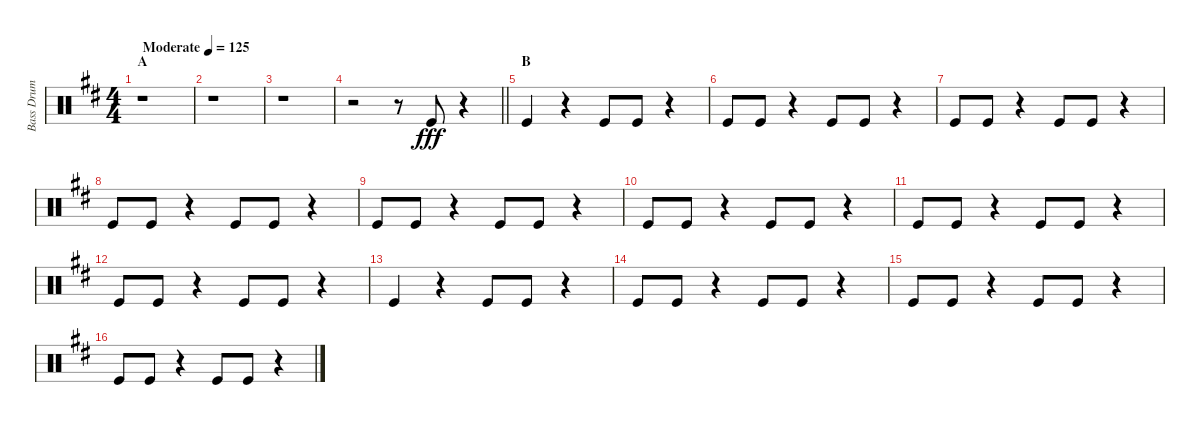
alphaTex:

\track ("Bass Drum" "Bass Drum") {instrument percussion}
\staff {score}
\articulation defaults
\ts (4 4)
\section ("" "A")
\tempo (125 "Moderate")
\clef neutral
\ks d
r.1{dy fff} |
r.1 |
r.1 |
\barLineRight lightlight
r.2 r.8 "Kick (hit)".8 r.4 |
\section ("" "B")
"Kick (hit)".4 r.4 "Kick (hit)".8 "Kick (hit)".8 r.4 |
"Kick (hit)".8 "Kick (hit)".8 r.4 "Kick (hit)".8 "Kick (hit)".8 r.4 |
"Kick (hit)".8 "Kick (hit)".8 r.4 "Kick (hit)".8 "Kick (hit)".8 r.4 |
"Kick (hit)".8 "Kick (hit)".8 r.4 "Kick (hit)".8 "Kick (hit)".8 r.4 |
"Kick (hit)".8 "Kick (hit)".8 r.4 "Kick (hit)".8 "Kick (hit)".8 r.4 |
"Kick (hit)".8 "Kick (hit)".8 r.4 "Kick (hit)".8 "Kick (hit)".8 r.4 |
"Kick (hit)".8 "Kick (hit)".8 r.4 "Kick (hit)".8 "Kick (hit)".8 r.4 |
"Kick (hit)".8 "Kick (hit)".8 r.4 "Kick (hit)".8 "Kick (hit)".8 r.4 |
"Kick (hit)".4 r.4 "Kick (hit)".8 "Kick (hit)".8 r.4 |
"Kick (hit)".8 "Kick (hit)".8 r.4 "Kick (hit)".8 "Kick (hit)".8 r.4 |
"Kick (hit)".8 "Kick (hit)".8 r.4 "Kick (hit)".8 "Kick (hit)".8 r.4 |
"Kick (hit)".8 "Kick (hit)".8 r.4 "Kick (hit)".8 "Kick (hit)".8 r.4
